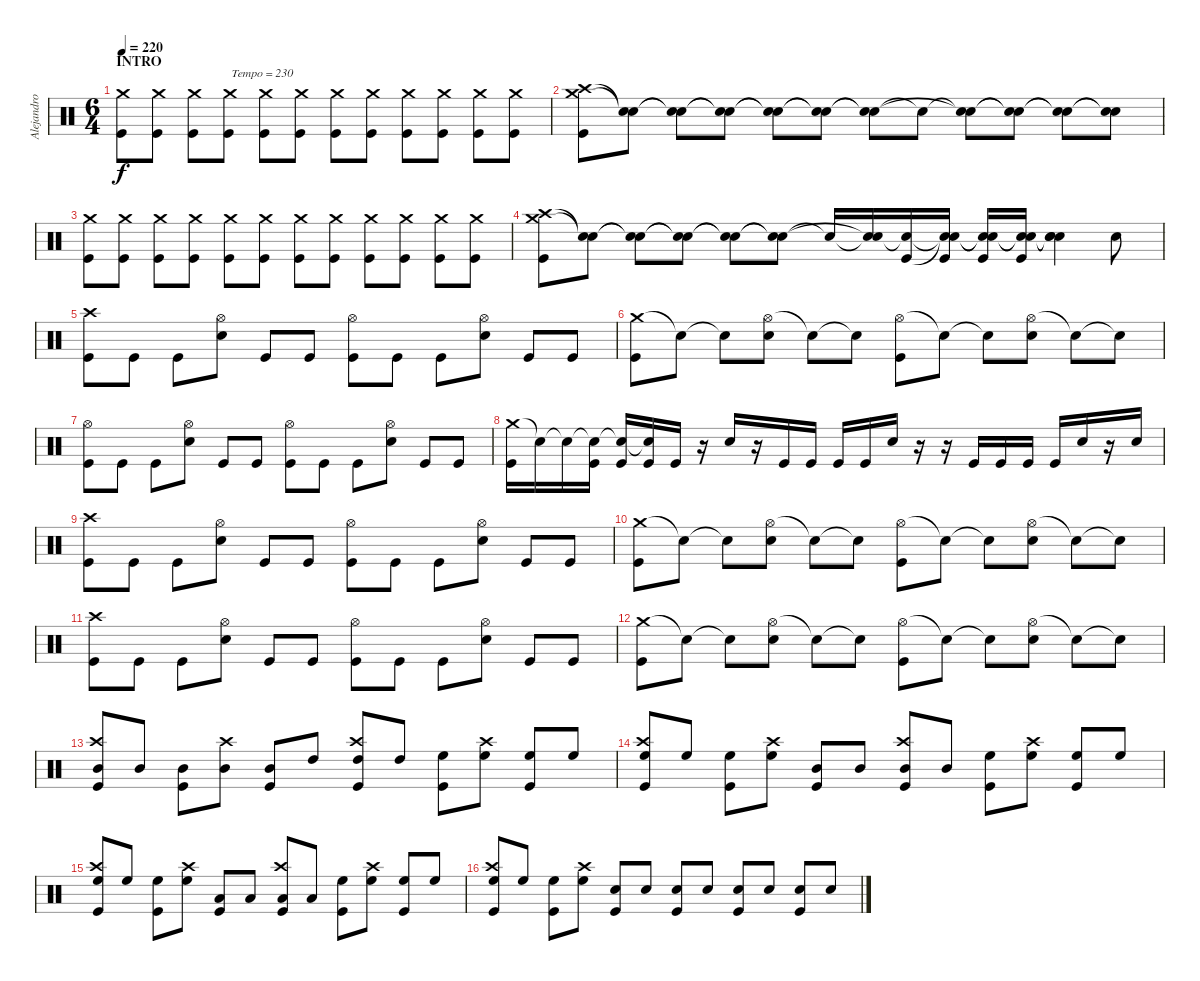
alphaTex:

\track ("Alejandro M. (Bateria)" "Alejandro ") {instrument percussion}
\staff {score}
\articulation defaults
\ts (6 4)
\section ("" "INTRO")
\tempo 220
\tempo 230
\tempo 220
\clef neutral
\ks c
("Crash medium (hit)" "Kick (hit)").8{txt "                                    Tempo = 230" dy f} ("Crash medium (hit)" "Kick (hit)").8 ("Crash medium (hit)" "Kick (hit)").8 ("Crash medium (hit)" "Kick (hit)").8 ("Crash medium (hit)" "Kick (hit)").8 ("Crash medium (hit)" "Kick (hit)").8 ("Crash medium (hit)" "Kick (hit)").8 ("Crash medium (hit)" "Kick (hit)").8 ("Crash medium (hit)" "Kick (hit)").8 ("Crash medium (hit)" "Kick (hit)").8 ("Crash medium (hit)" "Kick (hit)").8 ("Crash medium (hit)" "Kick (hit)").8 |
("Crash high (hit)" "Crash medium (hit)" "Kick (hit)").8 ("Snare (hit)"{t} "Snare (hit)"{t}).8 ("Snare (hit)"{t} "Snare (hit)"{t}).8 ("Snare (hit)"{t} "Snare (hit)"{t}).8 ("Snare (hit)"{t} "Snare (hit)"{t}).8 ("Snare (hit)"{t} "Snare (hit)"{t}).8 ("Snare (hit)"{t} "Snare (hit)"{t}).8 "Snare (hit)"{t}.8 ("Snare (hit)"{t} "Snare (hit)"{t}).8 ("Snare (hit)"{t} "Snare (hit)"{t}).8 ("Snare (hit)"{t} "Snare (hit)"{t}).8 ("Snare (hit)"{t} "Snare (hit)"{t}).8 |
("Crash medium (hit)" "Kick (hit)").8 ("Crash medium (hit)" "Kick (hit)").8 ("Crash medium (hit)" "Kick (hit)").8 ("Crash medium (hit)" "Kick (hit)").8 ("Crash medium (hit)" "Kick (hit)").8 ("Crash medium (hit)" "Kick (hit)").8 ("Crash medium (hit)" "Kick (hit)").8 ("Crash medium (hit)" "Kick (hit)").8 ("Crash medium (hit)" "Kick (hit)").8 ("Crash medium (hit)" "Kick (hit)").8 ("Crash medium (hit)" "Kick (hit)").8 ("Crash medium (hit)" "Kick (hit)").8 |
("Crash high (hit)" "Crash medium (hit)" "Kick (hit)").8 ("Snare (hit)"{t} "Snare (hit)"{t}).8 ("Snare (hit)"{t} "Snare (hit)"{t}).8 ("Snare (hit)"{t} "Snare (hit)"{t}).8 ("Snare (hit)"{t} "Snare (hit)"{t}).8 ("Snare (hit)"{t} "Snare (hit)"{t}).8 "Snare (hit)"{t}.16 ("Snare (hit)"{t} "Snare (hit)"{t}).16 ("Snare (hit)"{t} "Kick (hit)").16 ("Snare (hit)"{t} "Snare (hit)"{t} "Kick (hit)").16 ("Snare (hit)"{t} "Snare (hit)"{t} "Kick (hit)").16 ("Snare (hit)"{t} "Snare (hit)"{t} "Kick (hit)").16 ("Snare (hit)"{t} "Snare (hit)"{t} "Snare (hit) 2").4 "Snare (hit) 2".8 |
("Crash high (hit)" "Kick (hit)").8 "Kick (hit)".8 "Kick (hit)".8 ("Hi-Hat (open)" "Snare (hit) 2").8 "Kick (hit)".8 "Kick (hit)".8 ("Hi-Hat (open)" "Kick (hit)").8 "Kick (hit)".8 "Kick (hit)".8 ("Hi-Hat (open)" "Snare (hit) 2").8 "Kick (hit)".8 "Kick (hit)".8 |
("Crash medium (hit)" "Kick (hit)").8 "Snare (hit)"{t}.8 "Snare (hit)"{t}.8 ("Hi-Hat (open)" "Snare (hit) 2").8 "Snare (hit)"{t}.8 "Snare (hit)"{t}.8 ("Hi-Hat (open)" "Kick (hit)").8 "Snare (hit)"{t}.8 "Snare (hit)"{t}.8 ("Hi-Hat (open)" "Snare (hit) 2").8 "Snare (hit)"{t}.8 "Snare (hit)"{t}.8 |
("Hi-Hat (open)" "Kick (hit)").8 "Kick (hit)".8 "Kick (hit)".8 ("Hi-Hat (open)" "Snare (hit) 2").8 "Kick (hit)".8 "Kick (hit)".8 ("Hi-Hat (open)" "Kick (hit)").8 "Kick (hit)".8 "Kick (hit)".8 ("Hi-Hat (open)" "Snare (hit) 2").8 "Kick (hit)".8 "Kick (hit)".8 |
("Crash medium (hit)" "Kick (hit)").16 "Snare (hit)"{t}.16 "Snare (hit)"{t}.16 ("Snare (hit)"{t} "Kick (hit)").16 ("Snare (hit)"{t} "Kick (hit)").16 ("Snare (hit)"{t} "Kick (hit)").16 "Kick (hit)".16 r.16 "Snare (hit) 2".16 r.16 "Kick (hit)".16 "Kick (hit)".16 "Kick (hit)".16 "Kick (hit)".16 "Snare (hit) 2".16 r.16 r.16 "Kick (hit)".16 "Kick (hit)".16 "Kick (hit)".16 "Kick (hit)".16 "Snare (hit) 2".16 r.16 "Snare (hit) 2".16 |
("Crash high (hit)" "Kick (hit)").8 "Kick (hit)".8 "Kick (hit)".8 ("Hi-Hat (open)" "Snare (hit) 2").8 "Kick (hit)".8 "Kick (hit)".8 ("Hi-Hat (open)" "Kick (hit)").8 "Kick (hit)".8 "Kick (hit)".8 ("Hi-Hat (open)" "Snare (hit) 2").8 "Kick (hit)".8 "Kick (hit)".8 |
("Crash medium (hit)" "Kick (hit)").8 "Snare (hit)"{t}.8 "Snare (hit)"{t}.8 ("Hi-Hat (open)" "Snare (hit) 2").8 "Snare (hit)"{t}.8 "Snare (hit)"{t}.8 ("Hi-Hat (open)" "Kick (hit)").8 "Snare (hit)"{t}.8 "Snare (hit)"{t}.8 ("Hi-Hat (open)" "Snare (hit) 2").8 "Snare (hit)"{t}.8 "Snare (hit)"{t}.8 |
("Crash high (hit)" "Kick (hit)").8 "Kick (hit)".8 "Kick (hit)".8 ("Hi-Hat (open)" "Snare (hit) 2").8 "Kick (hit)".8 "Kick (hit)".8 ("Hi-Hat (open)" "Kick (hit)").8 "Kick (hit)".8 "Kick (hit)".8 ("Hi-Hat (open)" "Snare (hit) 2").8 "Kick (hit)".8 "Kick (hit)".8 |
("Crash medium (hit)" "Kick (hit)").8 "Snare (hit)"{t}.8 "Snare (hit)"{t}.8 ("Hi-Hat (open)" "Snare (hit) 2").8 "Snare (hit)"{t}.8 "Snare (hit)"{t}.8 ("Hi-Hat (open)" "Kick (hit)").8 "Snare (hit)"{t}.8 "Snare (hit)"{t}.8 ("Hi-Hat (open)" "Snare (hit) 2").8 "Snare (hit)"{t}.8 "Snare (hit)"{t}.8 |
("Crash high (hit)" "Mid Tom (hit)" "Kick (hit)").8 "Mid Tom (hit)".8 ("Mid Tom (hit)" "Kick (hit)").8 ("Crash high (hit)" "Mid Tom (hit)").8 ("Mid Tom (hit)" "Kick (hit)").8 "High Tom (hit)".8 ("Crash high (hit)" "High Tom (hit)" "Kick (hit)").8 "High Tom (hit)".8 ("High Floor Tom (hit)" "Kick (hit)").8 ("Crash high (hit)" "High Floor Tom (hit)").8 ("High Floor Tom (hit)" "Kick (hit)").8 "High Floor Tom (hit)".8 |
("Crash high (hit)" "High Floor Tom (hit)" "Kick (hit)").8 "High Floor Tom (hit)".8 ("High Floor Tom (hit)" "Kick (hit)").8 ("Crash high (hit)" "High Floor Tom (hit)").8 ("Mid Tom (hit)" "Kick (hit)").8 "Mid Tom (hit)".8 ("Crash high (hit)" "Mid Tom (hit)" "Kick (hit)").8 "Mid Tom (hit)".8 ("High Floor Tom (hit)" "Kick (hit)").8 ("Crash high (hit)" "High Floor Tom (hit)").8 ("High Floor Tom (hit)" "Kick (hit)").8 "High Floor Tom (hit)".8 |
("Crash high (hit)" "High Floor Tom (hit)" "Kick (hit)").8 "High Floor Tom (hit)".8 ("High Floor Tom (hit)" "Kick (hit)").8 ("Crash high (hit)" "High Floor Tom (hit)").8 ("Low Tom (hit)" "Kick (hit)").8 "Low Tom (hit)".8 ("Crash high (hit)" "Low Tom (hit)" "Kick (hit)").8 "Low Tom (hit)".8 ("High Floor Tom (hit)" "Kick (hit)").8 ("Crash high (hit)" "High Floor Tom (hit)").8 ("High Floor Tom (hit)" "Kick (hit)").8 "High Floor Tom (hit)".8 |
("Crash high (hit)" "High Floor Tom (hit)" "Kick (hit)").8 "High Floor Tom (hit)".8 ("High Floor Tom (hit)" "Kick (hit)").8 ("Crash high (hit)" "High Floor Tom (hit)").8 ("Snare (hit) 2" "Kick (hit)").8 "Snare (hit) 2".8 ("Snare (hit) 2" "Kick (hit)").8 "Snare (hit) 2".8 ("Snare (hit) 2" "Kick (hit)").8 "Snare (hit) 2".8 ("Snare (hit) 2" "Kick (hit)").8 "Snare (hit) 2".8
